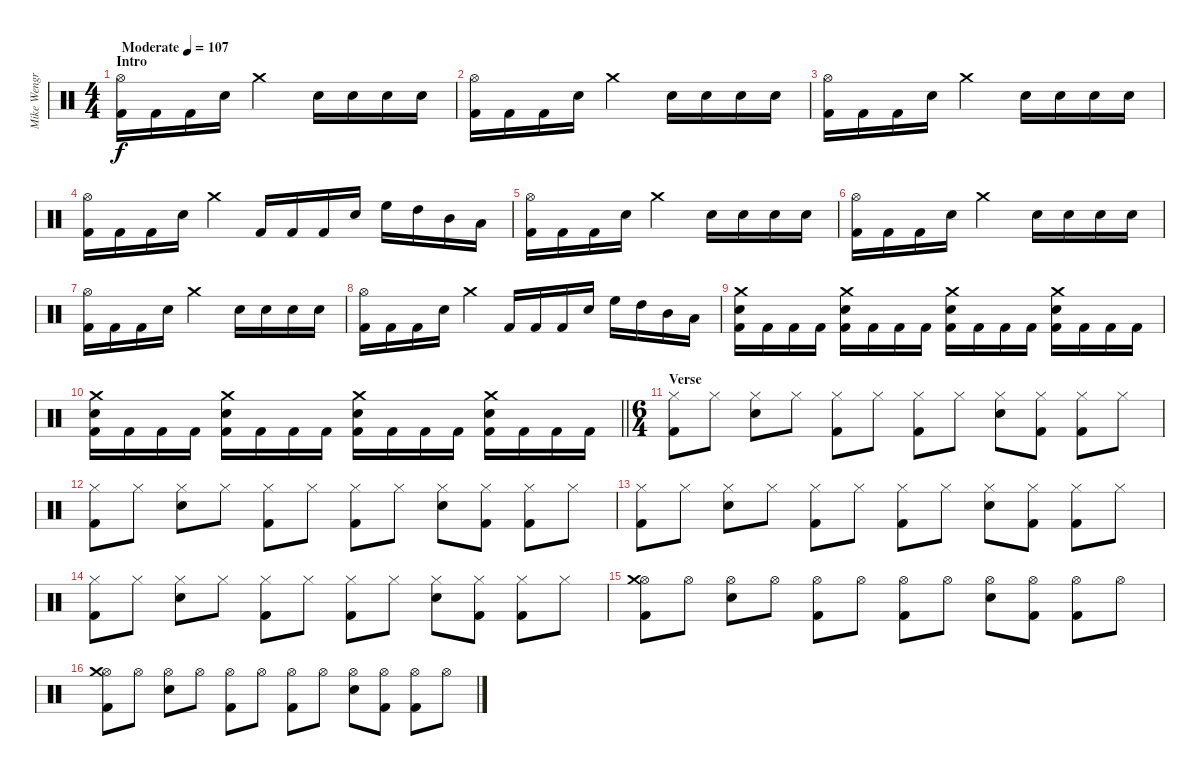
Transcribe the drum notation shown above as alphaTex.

\track ("Mike Wengren" "Mike Wengr") {instrument percussion}
\staff {score}
\articulation defaults
\ts (4 4)
\section ("" "Intro")
\tempo (107 "Moderate")
\clef neutral
\ks c
("Kick (hit) 2" "Hi-Hat (open)").16{dy f} "Kick (hit) 2".16 "Kick (hit) 2".16 "Electric Snare (hit)".16 "Crash medium (hit)".2 "Electric Snare (hit)".16 "Electric Snare (hit)".16 "Electric Snare (hit)".16 "Electric Snare (hit)".16 |
("Kick (hit) 2" "Hi-Hat (open)").16 "Kick (hit) 2".16 "Kick (hit) 2".16 "Electric Snare (hit)".16 "Crash medium (hit)".2 "Electric Snare (hit)".16 "Electric Snare (hit)".16 "Electric Snare (hit)".16 "Electric Snare (hit)".16 |
("Kick (hit) 2" "Hi-Hat (open)").16 "Kick (hit) 2".16 "Kick (hit) 2".16 "Electric Snare (hit)".16 "Crash medium (hit)".2 "Electric Snare (hit)".16 "Electric Snare (hit)".16 "Electric Snare (hit)".16 "Electric Snare (hit)".16 |
("Kick (hit) 2" "Hi-Hat (open)").16 "Kick (hit) 2".16 "Kick (hit) 2".16 "Electric Snare (hit)".16 "Crash medium (hit)".4 "Kick (hit) 2".16 "Kick (hit) 2".16 "Kick (hit) 2".16 "Electric Snare (hit)".16 "High Floor Tom (hit)".16 "High Tom (hit)".16 "Mid Tom (hit)".16 "Low Tom (hit)".16 |
("Kick (hit) 2" "Hi-Hat (open)").16 "Kick (hit) 2".16 "Kick (hit) 2".16 "Electric Snare (hit)".16 "Crash medium (hit)".2 "Electric Snare (hit)".16 "Electric Snare (hit)".16 "Electric Snare (hit)".16 "Electric Snare (hit)".16 |
("Kick (hit) 2" "Hi-Hat (open)").16 "Kick (hit) 2".16 "Kick (hit) 2".16 "Electric Snare (hit)".16 "Crash medium (hit)".2 "Electric Snare (hit)".16 "Electric Snare (hit)".16 "Electric Snare (hit)".16 "Electric Snare (hit)".16 |
("Kick (hit) 2" "Hi-Hat (open)").16 "Kick (hit) 2".16 "Kick (hit) 2".16 "Electric Snare (hit)".16 "Crash medium (hit)".2 "Electric Snare (hit)".16 "Electric Snare (hit)".16 "Electric Snare (hit)".16 "Electric Snare (hit)".16 |
("Kick (hit) 2" "Hi-Hat (open)").16 "Kick (hit) 2".16 "Kick (hit) 2".16 "Electric Snare (hit)".16 "Crash medium (hit)".4 "Kick (hit) 2".16 "Kick (hit) 2".16 "Kick (hit) 2".16 "Electric Snare (hit)".16 "High Floor Tom (hit)".16 "High Tom (hit)".16 "Mid Tom (hit)".16 "Low Tom (hit)".16 |
("Kick (hit) 2" "Electric Snare (hit)" "Crash medium (hit)").16 "Kick (hit) 2".16 "Kick (hit) 2".16 "Kick (hit) 2".16 ("Kick (hit) 2" "Electric Snare (hit)" "Crash medium (hit)").16 "Kick (hit) 2".16 "Kick (hit) 2".16 "Kick (hit) 2".16 ("Kick (hit) 2" "Electric Snare (hit)" "Crash medium (hit)").16 "Kick (hit) 2".16 "Kick (hit) 2".16 "Kick (hit) 2".16 ("Kick (hit) 2" "Electric Snare (hit)" "Crash medium (hit)").16 "Kick (hit) 2".16 "Kick (hit) 2".16 "Kick (hit) 2".16 |
\barLineRight lightlight
("Kick (hit) 2" "Electric Snare (hit)" "Crash medium (hit)").16 "Kick (hit) 2".16 "Kick (hit) 2".16 "Kick (hit) 2".16 ("Kick (hit) 2" "Electric Snare (hit)" "Crash medium (hit)").16 "Kick (hit) 2".16 "Kick (hit) 2".16 "Kick (hit) 2".16 ("Kick (hit) 2" "Electric Snare (hit)" "Crash medium (hit)").16 "Kick (hit) 2".16 "Kick (hit) 2".16 "Kick (hit) 2".16 ("Kick (hit) 2" "Electric Snare (hit)" "Crash medium (hit)").16 "Kick (hit) 2".16 "Kick (hit) 2".16 "Kick (hit) 2".16 |
\ts (6 4)
\section ("" "Verse")
("Kick (hit) 2" "Hi-Hat (closed)").8 "Hi-Hat (closed)".8 ("Electric Snare (hit)" "Hi-Hat (closed)").8 "Hi-Hat (closed)".8 ("Kick (hit) 2" "Hi-Hat (closed)").8 "Hi-Hat (closed)".8 ("Kick (hit) 2" "Hi-Hat (closed)").8 "Hi-Hat (closed)".8 ("Electric Snare (hit)" "Hi-Hat (closed)").8 ("Kick (hit) 2" "Hi-Hat (closed)").8 ("Kick (hit) 2" "Hi-Hat (closed)").8 "Hi-Hat (closed)".8 |
("Kick (hit) 2" "Hi-Hat (closed)").8 "Hi-Hat (closed)".8 ("Electric Snare (hit)" "Hi-Hat (closed)").8 "Hi-Hat (closed)".8 ("Kick (hit) 2" "Hi-Hat (closed)").8 "Hi-Hat (closed)".8 ("Kick (hit) 2" "Hi-Hat (closed)").8 "Hi-Hat (closed)".8 ("Electric Snare (hit)" "Hi-Hat (closed)").8 ("Kick (hit) 2" "Hi-Hat (closed)").8 ("Kick (hit) 2" "Hi-Hat (closed)").8 "Hi-Hat (closed)".8 |
("Kick (hit) 2" "Hi-Hat (closed)").8 "Hi-Hat (closed)".8 ("Electric Snare (hit)" "Hi-Hat (closed)").8 "Hi-Hat (closed)".8 ("Kick (hit) 2" "Hi-Hat (closed)").8 "Hi-Hat (closed)".8 ("Kick (hit) 2" "Hi-Hat (closed)").8 "Hi-Hat (closed)".8 ("Electric Snare (hit)" "Hi-Hat (closed)").8 ("Kick (hit) 2" "Hi-Hat (closed)").8 ("Kick (hit) 2" "Hi-Hat (closed)").8 "Hi-Hat (closed)".8 |
("Kick (hit) 2" "Hi-Hat (closed)").8 "Hi-Hat (closed)".8 ("Electric Snare (hit)" "Hi-Hat (closed)").8 "Hi-Hat (closed)".8 ("Kick (hit) 2" "Hi-Hat (closed)").8 "Hi-Hat (closed)".8 ("Kick (hit) 2" "Hi-Hat (closed)").8 "Hi-Hat (closed)".8 ("Electric Snare (hit)" "Hi-Hat (closed)").8 ("Kick (hit) 2" "Hi-Hat (closed)").8 ("Kick (hit) 2" "Hi-Hat (closed)").8 "Hi-Hat (closed)".8 |
("Kick (hit) 2" "Hi-Hat (open)" "Crash medium (hit)").8 "Hi-Hat (open)".8 ("Electric Snare (hit)" "Hi-Hat (open)").8 "Hi-Hat (open)".8 ("Kick (hit) 2" "Hi-Hat (open)").8 "Hi-Hat (open)".8 ("Kick (hit) 2" "Hi-Hat (open)").8 "Hi-Hat (open)".8 ("Electric Snare (hit)" "Hi-Hat (open)").8 ("Kick (hit) 2" "Hi-Hat (open)").8 ("Kick (hit) 2" "Hi-Hat (open)").8 "Hi-Hat (open)".8 |
("Kick (hit) 2" "Hi-Hat (open)" "Crash medium (hit)").8 "Hi-Hat (open)".8 ("Electric Snare (hit)" "Hi-Hat (open)").8 "Hi-Hat (open)".8 ("Kick (hit) 2" "Hi-Hat (open)").8 "Hi-Hat (open)".8 ("Kick (hit) 2" "Hi-Hat (open)").8 "Hi-Hat (open)".8 ("Electric Snare (hit)" "Hi-Hat (open)").8 ("Kick (hit) 2" "Hi-Hat (open)").8 ("Kick (hit) 2" "Hi-Hat (open)").8 "Hi-Hat (open)".8
